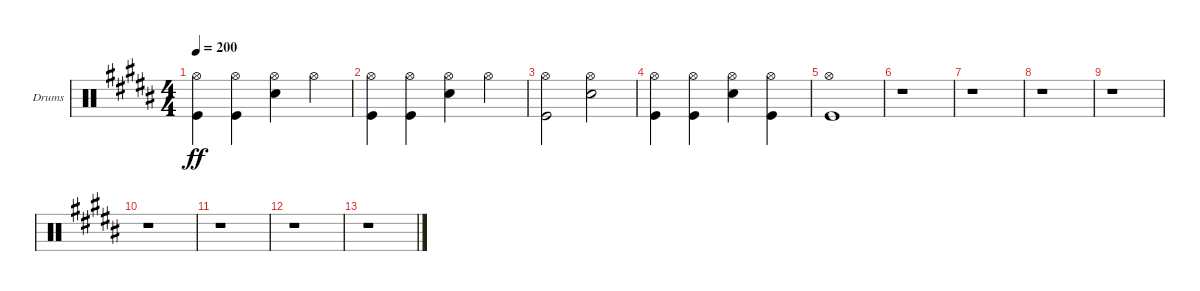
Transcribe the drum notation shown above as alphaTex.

\defaultSystemsLayout 4
\bracketExtendMode groupsimilarinstruments
\firstSystemTrackNameOrientation horizontal
\otherSystemsTrackNameOrientation horizontal
\track ("Drumkit" "Drums") {instrument percussion}
\staff {score}
\articulation defaults
\ts (4 4)
\tempo 200
\clef neutral
\ks b
("Kick (hit)" "Hi-Hat (open)").4{dy ff} ("Kick (hit)" "Hi-Hat (open)").4 ("Snare (hit) 2" "Hi-Hat (open)").4 "Hi-Hat (open)".4 |
("Kick (hit)" "Hi-Hat (open)").4 ("Kick (hit)" "Hi-Hat (open)").4 ("Snare (hit) 2" "Hi-Hat (open)").4 "Hi-Hat (open)".4 |
("Kick (hit)" "Hi-Hat (open)").2 ("Snare (hit) 2" "Hi-Hat (open)").2 |
("Kick (hit)" "Hi-Hat (open)").4 ("Kick (hit)" "Hi-Hat (open)").4 ("Snare (hit) 2" "Hi-Hat (open)").4 ("Kick (hit)" "Hi-Hat (open)").4 |
("Hi-Hat (open)" "Kick (hit)").1 |
r.1 |
r.1 |
r.1 |
r.1 |
r.1 |
r.1 |
r.1 |
r.1
